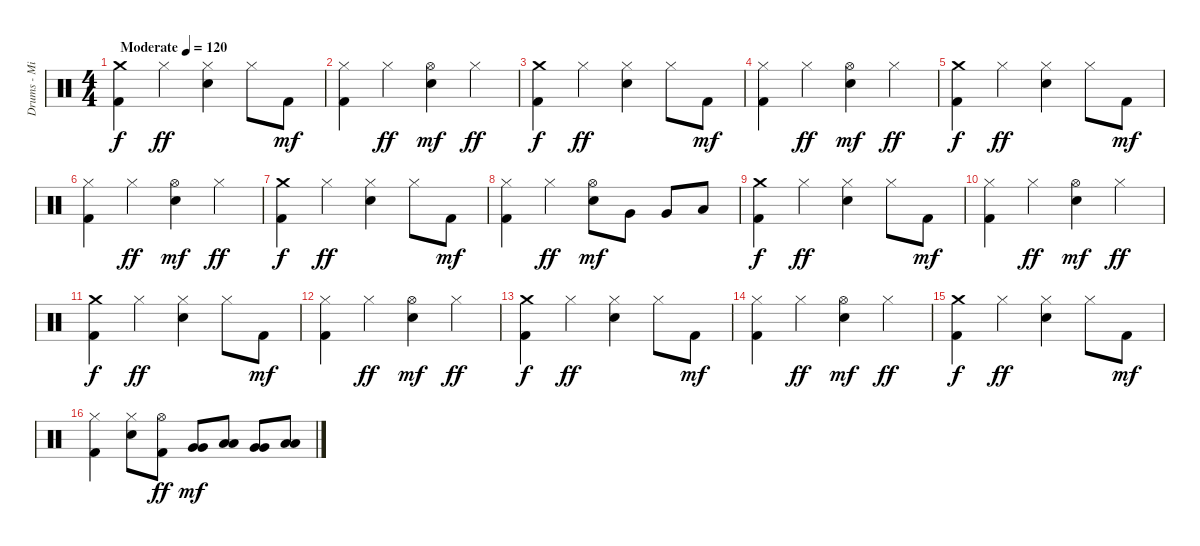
\track ("Drums - Mikko" "Drums - Mi") {instrument percussion}
\staff {score}
\articulation defaults
\ts (4 4)
\tempo (120 "Moderate")
\clef neutral
\ks c
("Crash medium (hit)" "Kick (hit) 2").4{dy f} "Hi-Hat (closed)".4{dy ff} ("Hi-Hat (closed)" "Snare (hit) 2").4 "Hi-Hat (closed)".8 "Kick (hit) 2".8{dy mf} |
("Hi-Hat (closed)" "Kick (hit) 2").4 "Hi-Hat (closed)".4{dy ff} ("Hi-Hat (open)" "Snare (hit) 2").4{dy mf} "Hi-Hat (closed)".4{dy ff} |
("Crash medium (hit)" "Kick (hit) 2").4{dy f} "Hi-Hat (closed)".4{dy ff} ("Hi-Hat (closed)" "Snare (hit) 2").4 "Hi-Hat (closed)".8 "Kick (hit) 2".8{dy mf} |
("Hi-Hat (closed)" "Kick (hit) 2").4 "Hi-Hat (closed)".4{dy ff} ("Hi-Hat (open)" "Snare (hit) 2").4{dy mf} "Hi-Hat (closed)".4{dy ff} |
("Crash medium (hit)" "Kick (hit) 2").4{dy f} "Hi-Hat (closed)".4{dy ff} ("Hi-Hat (closed)" "Snare (hit) 2").4 "Hi-Hat (closed)".8 "Kick (hit) 2".8{dy mf} |
("Hi-Hat (closed)" "Kick (hit) 2").4 "Hi-Hat (closed)".4{dy ff} ("Hi-Hat (open)" "Snare (hit) 2").4{dy mf} "Hi-Hat (closed)".4{dy ff} |
("Crash medium (hit)" "Kick (hit) 2").4{dy f} "Hi-Hat (closed)".4{dy ff} ("Hi-Hat (closed)" "Snare (hit) 2").4 "Hi-Hat (closed)".8 "Kick (hit) 2".8{dy mf} |
("Hi-Hat (closed)" "Kick (hit) 2").4 "Hi-Hat (closed)".4{dy ff} ("Hi-Hat (open)" "Snare (hit) 2").8{dy mf} "Very Low Tom (hit)".8 "Very Low Tom (hit)".8 "Low Floor Tom (hit)".8 |
("Crash medium (hit)" "Kick (hit) 2").4{dy f} "Hi-Hat (closed)".4{dy ff} ("Hi-Hat (closed)" "Snare (hit) 2").4 "Hi-Hat (closed)".8 "Kick (hit) 2".8{dy mf} |
("Hi-Hat (closed)" "Kick (hit) 2").4 "Hi-Hat (closed)".4{dy ff} ("Hi-Hat (open)" "Snare (hit) 2").4{dy mf} "Hi-Hat (closed)".4{dy ff} |
("Crash medium (hit)" "Kick (hit) 2").4{dy f} "Hi-Hat (closed)".4{dy ff} ("Hi-Hat (closed)" "Snare (hit) 2").4 "Hi-Hat (closed)".8 "Kick (hit) 2".8{dy mf} |
("Hi-Hat (closed)" "Kick (hit) 2").4 "Hi-Hat (closed)".4{dy ff} ("Hi-Hat (open)" "Snare (hit) 2").4{dy mf} "Hi-Hat (closed)".4{dy ff} |
("Crash medium (hit)" "Kick (hit) 2").4{dy f} "Hi-Hat (closed)".4{dy ff} ("Hi-Hat (closed)" "Snare (hit) 2").4 "Hi-Hat (closed)".8 "Kick (hit) 2".8{dy mf} |
("Hi-Hat (closed)" "Kick (hit) 2").4 "Hi-Hat (closed)".4{dy ff} ("Hi-Hat (open)" "Snare (hit) 2").4{dy mf} "Hi-Hat (closed)".4{dy ff} |
("Crash medium (hit)" "Kick (hit) 2").4{dy f} "Hi-Hat (closed)".4{dy ff} ("Hi-Hat (closed)" "Snare (hit) 2").4 "Hi-Hat (closed)".8 "Kick (hit) 2".8{dy mf} |
("Hi-Hat (closed)" "Kick (hit) 2").4 ("Hi-Hat (closed)" "Snare (hit) 2").8 ("Hi-Hat (open)" "Kick (hit) 2").8{dy ff} ("Very Low Tom (hit)" "Very Low Tom (hit)").8{dy mf} ("Low Floor Tom (hit)" "Low Floor Tom (hit)").8 ("Very Low Tom (hit)" "Very Low Tom (hit)").8 ("Low Floor Tom (hit)" "Low Floor Tom (hit)").8
